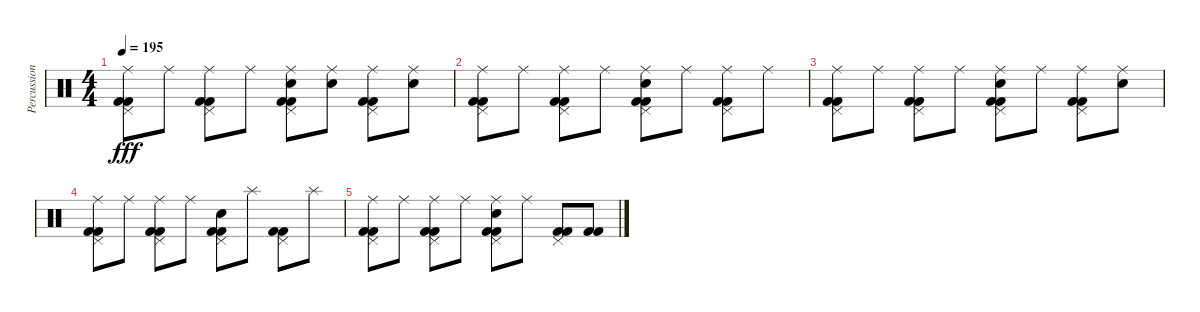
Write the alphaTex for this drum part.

\track ("Percussions" "Percussion") {instrument percussion}
\staff {score}
\articulation defaults
\ts (4 4)
\tempo 195
\clef neutral
\ks c
("Ride (middle)" "Pedal Hi-Hat (hit)" "Kick (hit) 2" "Kick (hit) 2").8{dy fff} "Ride (middle)".8 ("Ride (middle)" "Pedal Hi-Hat (hit)" "Kick (hit) 2" "Kick (hit) 2").8 "Ride (middle)".8 ("Ride (middle)" "Electric Snare (hit)" "Pedal Hi-Hat (hit)" "Kick (hit) 2" "Kick (hit) 2").8 ("Ride (middle)" "Electric Snare (hit)").8 ("Ride (middle)" "Pedal Hi-Hat (hit)" "Kick (hit) 2" "Kick (hit) 2").8 ("Ride (middle)" "Electric Snare (hit)").8 |
("Ride (middle)" "Pedal Hi-Hat (hit)" "Kick (hit) 2" "Kick (hit) 2").8 "Ride (middle)".8 ("Ride (middle)" "Pedal Hi-Hat (hit)" "Kick (hit) 2" "Kick (hit) 2").8 "Ride (middle)".8 ("Ride (middle)" "Electric Snare (hit)" "Pedal Hi-Hat (hit)" "Kick (hit) 2" "Kick (hit) 2").8 "Ride (middle)".8 ("Ride (middle)" "Pedal Hi-Hat (hit)" "Kick (hit) 2" "Kick (hit) 2").8 "Ride (middle)".8 |
("Ride (middle)" "Pedal Hi-Hat (hit)" "Kick (hit) 2" "Kick (hit) 2").8 "Ride (middle)".8 ("Ride (middle)" "Pedal Hi-Hat (hit)" "Kick (hit) 2" "Kick (hit) 2").8 "Ride (middle)".8 ("Ride (middle)" "Electric Snare (hit)" "Pedal Hi-Hat (hit)" "Kick (hit) 2" "Kick (hit) 2").8 "Ride (middle)".8 ("Ride (middle)" "Pedal Hi-Hat (hit)" "Kick (hit) 2" "Kick (hit) 2").8 ("Ride (middle)" "Electric Snare (hit)").8 |
("Ride (middle)" "Pedal Hi-Hat (hit)" "Kick (hit) 2" "Kick (hit) 2").8 "Ride (middle)".8 ("Ride (middle)" "Pedal Hi-Hat (hit)" "Kick (hit) 2" "Kick (hit) 2").8 "Ride (middle)".8 ("Electric Snare (hit)" "Pedal Hi-Hat (hit)" "Kick (hit) 2" "Kick (hit) 2").8 "Splash (hit)".8 ("Pedal Hi-Hat (hit)" "Kick (hit) 2" "Kick (hit) 2").8 "Splash (hit)".8 |
("Ride (middle)" "Pedal Hi-Hat (hit)" "Kick (hit) 2" "Kick (hit) 2").8 "Ride (middle)".8 ("Ride (middle)" "Pedal Hi-Hat (hit)" "Kick (hit) 2" "Kick (hit) 2").8 "Ride (middle)".8 ("Ride (middle)" "Electric Snare (hit)" "Pedal Hi-Hat (hit)" "Kick (hit) 2" "Kick (hit) 2").8 "Ride (middle)".8 ("Pedal Hi-Hat (hit)" "Kick (hit) 2" "Kick (hit) 2").8 ("Kick (hit) 2" "Kick (hit) 2").8
